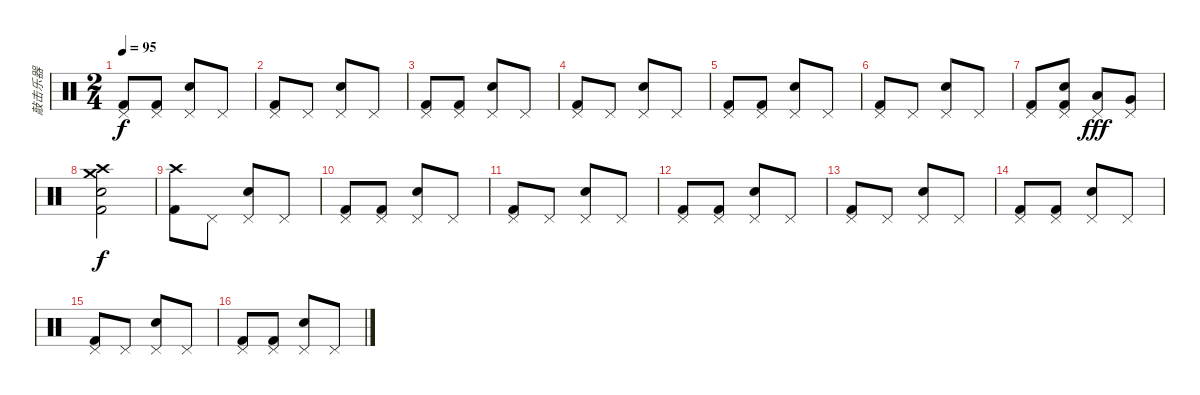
\track ("敲击乐器" "敲击乐器") {instrument percussion}
\staff {score}
\articulation defaults
\ts (2 4)
\tempo 95
\clef neutral
\ks c
("Pedal Hi-Hat (hit)" "Kick (hit) 2").8{dy f} ("Pedal Hi-Hat (hit)" "Kick (hit) 2").8 ("Pedal Hi-Hat (hit)" "Electric Snare (hit)").8 "Pedal Hi-Hat (hit)".8 |
("Pedal Hi-Hat (hit)" "Kick (hit) 2").8 "Pedal Hi-Hat (hit)".8 ("Pedal Hi-Hat (hit)" "Electric Snare (hit)").8 "Pedal Hi-Hat (hit)".8 |
("Pedal Hi-Hat (hit)" "Kick (hit) 2").8 ("Pedal Hi-Hat (hit)" "Kick (hit) 2").8 ("Pedal Hi-Hat (hit)" "Electric Snare (hit)").8 "Pedal Hi-Hat (hit)".8 |
("Pedal Hi-Hat (hit)" "Kick (hit) 2").8 "Pedal Hi-Hat (hit)".8 ("Pedal Hi-Hat (hit)" "Electric Snare (hit)").8 "Pedal Hi-Hat (hit)".8 |
("Pedal Hi-Hat (hit)" "Kick (hit) 2").8 ("Pedal Hi-Hat (hit)" "Kick (hit) 2").8 ("Pedal Hi-Hat (hit)" "Electric Snare (hit)").8 "Pedal Hi-Hat (hit)".8 |
("Pedal Hi-Hat (hit)" "Kick (hit) 2").8 "Pedal Hi-Hat (hit)".8 ("Pedal Hi-Hat (hit)" "Electric Snare (hit)").8 "Pedal Hi-Hat (hit)".8 |
("Pedal Hi-Hat (hit)" "Kick (hit) 2").8 ("Pedal Hi-Hat (hit)" "Electric Snare (hit)" "Kick (hit) 2").8 ("Pedal Hi-Hat (hit)" "Low Tom (hit)").8{dy fff} ("Pedal Hi-Hat (hit)" "Very Low Tom (hit)").8 |
("Crash medium (hit)" "Crash high (hit)" "Electric Snare (hit)" "Kick (hit) 2").2{dy f} |
("Crash high (hit)" "Kick (hit) 2").8 "Pedal Hi-Hat (hit)".8 ("Pedal Hi-Hat (hit)" "Electric Snare (hit)").8 "Pedal Hi-Hat (hit)".8 |
("Pedal Hi-Hat (hit)" "Kick (hit) 2").8 ("Pedal Hi-Hat (hit)" "Kick (hit) 2").8 ("Pedal Hi-Hat (hit)" "Electric Snare (hit)").8 "Pedal Hi-Hat (hit)".8 |
("Pedal Hi-Hat (hit)" "Kick (hit) 2").8 "Pedal Hi-Hat (hit)".8 ("Pedal Hi-Hat (hit)" "Electric Snare (hit)").8 "Pedal Hi-Hat (hit)".8 |
("Pedal Hi-Hat (hit)" "Kick (hit) 2").8 ("Pedal Hi-Hat (hit)" "Kick (hit) 2").8 ("Pedal Hi-Hat (hit)" "Electric Snare (hit)").8 "Pedal Hi-Hat (hit)".8 |
("Pedal Hi-Hat (hit)" "Kick (hit) 2").8 "Pedal Hi-Hat (hit)".8 ("Pedal Hi-Hat (hit)" "Electric Snare (hit)").8 "Pedal Hi-Hat (hit)".8 |
("Pedal Hi-Hat (hit)" "Kick (hit) 2").8 ("Pedal Hi-Hat (hit)" "Kick (hit) 2").8 ("Pedal Hi-Hat (hit)" "Electric Snare (hit)").8 "Pedal Hi-Hat (hit)".8 |
("Pedal Hi-Hat (hit)" "Kick (hit) 2").8 "Pedal Hi-Hat (hit)".8 ("Pedal Hi-Hat (hit)" "Electric Snare (hit)").8 "Pedal Hi-Hat (hit)".8 |
("Pedal Hi-Hat (hit)" "Kick (hit) 2").8 ("Pedal Hi-Hat (hit)" "Kick (hit) 2").8 ("Pedal Hi-Hat (hit)" "Electric Snare (hit)").8 "Pedal Hi-Hat (hit)".8
